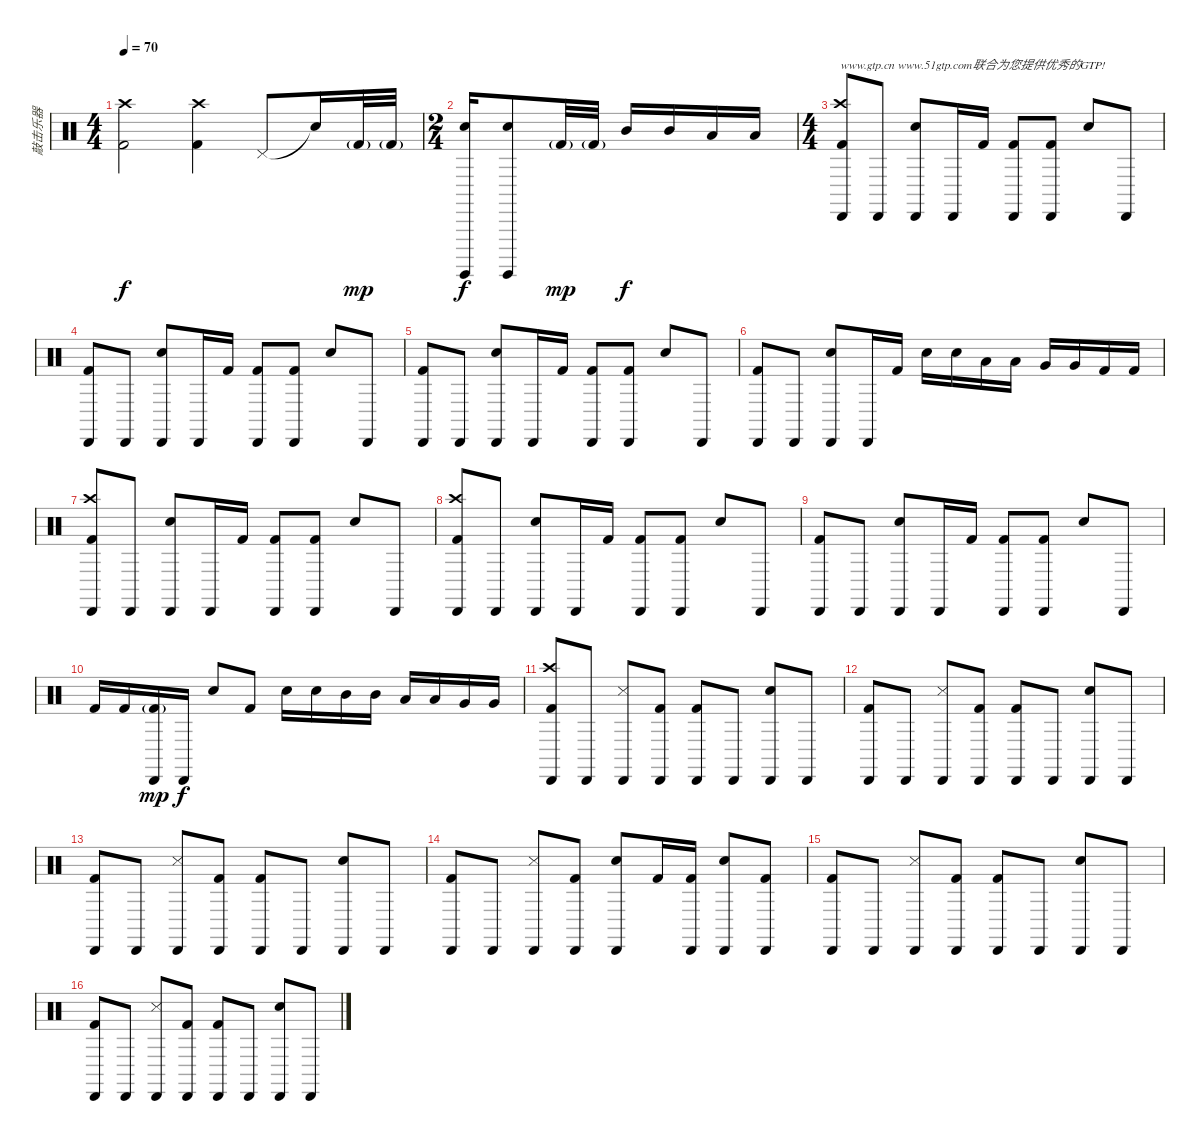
\track ("敲击乐器" "敲击乐器") {instrument percussion}
\staff {score}
\articulation defaults
\ts (4 4)
\tempo 70
\clef neutral
\ks c
("Crash high (hit)" "Kick (hit) 2").2{dy f} ("Crash high (hit)" "Kick (hit) 2").4 "Pedal Hi-Hat (hit)".8 "Snare (hit)"{t}.16 "Kick (hit) 2"{g}.32{dy mp} "Kick (hit) 2"{g}.32 |
\ts (2 4)
("Electric Snare (hit)" "Surdo (hit)").16{dy f} ("Electric Snare (hit)" "Surdo (hit)").8 "Kick (hit) 2"{g}.32{dy mp} "Kick (hit) 2"{g}.32 "Mid Tom (hit)".16{dy f} "Mid Tom (hit)".16 "Low Tom (hit)".16 "Low Tom (hit)".16 |
\ts (4 4)
("Crash high (hit)" "Cabasa (hit)" "Kick (hit) 2").8{txt "www.gtp.cn www.51gtp.com联合为您提供优秀的GTP!"} "Cabasa (hit)".8 ("Cabasa (hit)" "Electric Snare (hit)").8 "Cabasa (hit)".16 "Kick (hit) 2".16 ("Cabasa (hit)" "Kick (hit) 2").8 ("Cabasa (hit)" "Kick (hit) 2").8 "Electric Snare (hit)".8 "Cabasa (hit)".8 |
("Cabasa (hit)" "Kick (hit) 2").8 "Cabasa (hit)".8 ("Cabasa (hit)" "Electric Snare (hit)").8 "Cabasa (hit)".16 "Kick (hit) 2".16 ("Cabasa (hit)" "Kick (hit) 2").8 ("Cabasa (hit)" "Kick (hit) 2").8 "Electric Snare (hit)".8 "Cabasa (hit)".8 |
("Cabasa (hit)" "Kick (hit) 2").8 "Cabasa (hit)".8 ("Cabasa (hit)" "Electric Snare (hit)").8 "Cabasa (hit)".16 "Kick (hit) 2".16 ("Cabasa (hit)" "Kick (hit) 2").8 ("Cabasa (hit)" "Kick (hit) 2").8 "Electric Snare (hit)".8 "Cabasa (hit)".8 |
("Cabasa (hit)" "Kick (hit) 2").8 "Cabasa (hit)".8 ("Cabasa (hit)" "Electric Snare (hit)").8 "Cabasa (hit)".16 "Kick (hit) 2".16 "Electric Snare (hit)".16 "Electric Snare (hit)".16 "Low Tom (hit)".16 "Low Tom (hit)".16 "Very Low Tom (hit)".16 "Very Low Tom (hit)".16 "Kick (hit) 2".16 "Kick (hit) 2".16 |
("Crash high (hit)" "Cabasa (hit)" "Kick (hit) 2").8 "Cabasa (hit)".8 ("Cabasa (hit)" "Electric Snare (hit)").8 "Cabasa (hit)".16 "Kick (hit) 2".16 ("Cabasa (hit)" "Kick (hit) 2").8 ("Cabasa (hit)" "Kick (hit) 2").8 "Electric Snare (hit)".8 "Cabasa (hit)".8 |
("Crash high (hit)" "Cabasa (hit)" "Kick (hit) 2").8 "Cabasa (hit)".8 ("Cabasa (hit)" "Electric Snare (hit)").8 "Cabasa (hit)".16 "Kick (hit) 2".16 ("Cabasa (hit)" "Kick (hit) 2").8 ("Cabasa (hit)" "Kick (hit) 2").8 "Electric Snare (hit)".8 "Cabasa (hit)".8 |
("Cabasa (hit)" "Kick (hit) 2").8 "Cabasa (hit)".8 ("Cabasa (hit)" "Electric Snare (hit)").8 "Cabasa (hit)".16 "Kick (hit) 2".16 ("Cabasa (hit)" "Kick (hit) 2").8 ("Cabasa (hit)" "Kick (hit) 2").8 "Electric Snare (hit)".8 "Cabasa (hit)".8 |
"Kick (hit) 2".16 "Kick (hit) 2".16 ("Cabasa (hit)" "Kick (hit) 2"{g}).16{dy mp} "Cabasa (hit)".16{dy f} "Electric Snare (hit)".8 "Kick (hit) 2".8 "Electric Snare (hit)".16 "Electric Snare (hit)".16 "Mid Tom (hit)".16 "Mid Tom (hit)".16 "Low Tom (hit)".16 "Low Tom (hit)".16 "Very Low Tom (hit)".16 "Very Low Tom (hit)".16 |
("Crash high (hit)" "Cabasa (hit)" "Kick (hit) 2").8 "Cabasa (hit)".8 ("Cabasa (hit)" "Snare (side stick) 3").8 ("Cabasa (hit)" "Kick (hit) 2").8 ("Cabasa (hit)" "Kick (hit) 2").8 "Cabasa (hit)".8 ("Cabasa (hit)" "Electric Snare (hit)").8 "Cabasa (hit)".8 |
("Cabasa (hit)" "Kick (hit) 2").8 "Cabasa (hit)".8 ("Cabasa (hit)" "Snare (side stick) 3").8 ("Cabasa (hit)" "Kick (hit) 2").8 ("Cabasa (hit)" "Kick (hit) 2").8 "Cabasa (hit)".8 ("Cabasa (hit)" "Electric Snare (hit)").8 "Cabasa (hit)".8 |
("Cabasa (hit)" "Kick (hit) 2").8 "Cabasa (hit)".8 ("Cabasa (hit)" "Snare (side stick) 3").8 ("Cabasa (hit)" "Kick (hit) 2").8 ("Cabasa (hit)" "Kick (hit) 2").8 "Cabasa (hit)".8 ("Cabasa (hit)" "Electric Snare (hit)").8 "Cabasa (hit)".8 |
("Cabasa (hit)" "Kick (hit) 2").8 "Cabasa (hit)".8 ("Cabasa (hit)" "Snare (side stick) 3").8 ("Cabasa (hit)" "Kick (hit) 2").8 ("Cabasa (hit)" "Electric Snare (hit)").8 "Kick (hit) 2".16 ("Cabasa (hit)" "Kick (hit) 2").16 ("Cabasa (hit)" "Electric Snare (hit)").8 ("Cabasa (hit)" "Kick (hit) 2").8 |
("Cabasa (hit)" "Kick (hit) 2").8 "Cabasa (hit)".8 ("Cabasa (hit)" "Snare (side stick) 3").8 ("Cabasa (hit)" "Kick (hit) 2").8 ("Cabasa (hit)" "Kick (hit) 2").8 "Cabasa (hit)".8 ("Cabasa (hit)" "Electric Snare (hit)").8 "Cabasa (hit)".8 |
("Cabasa (hit)" "Kick (hit) 2").8 "Cabasa (hit)".8 ("Cabasa (hit)" "Snare (side stick) 3").8 ("Cabasa (hit)" "Kick (hit) 2").8 ("Cabasa (hit)" "Kick (hit) 2").8 "Cabasa (hit)".8 ("Cabasa (hit)" "Electric Snare (hit)").8 "Cabasa (hit)".8
